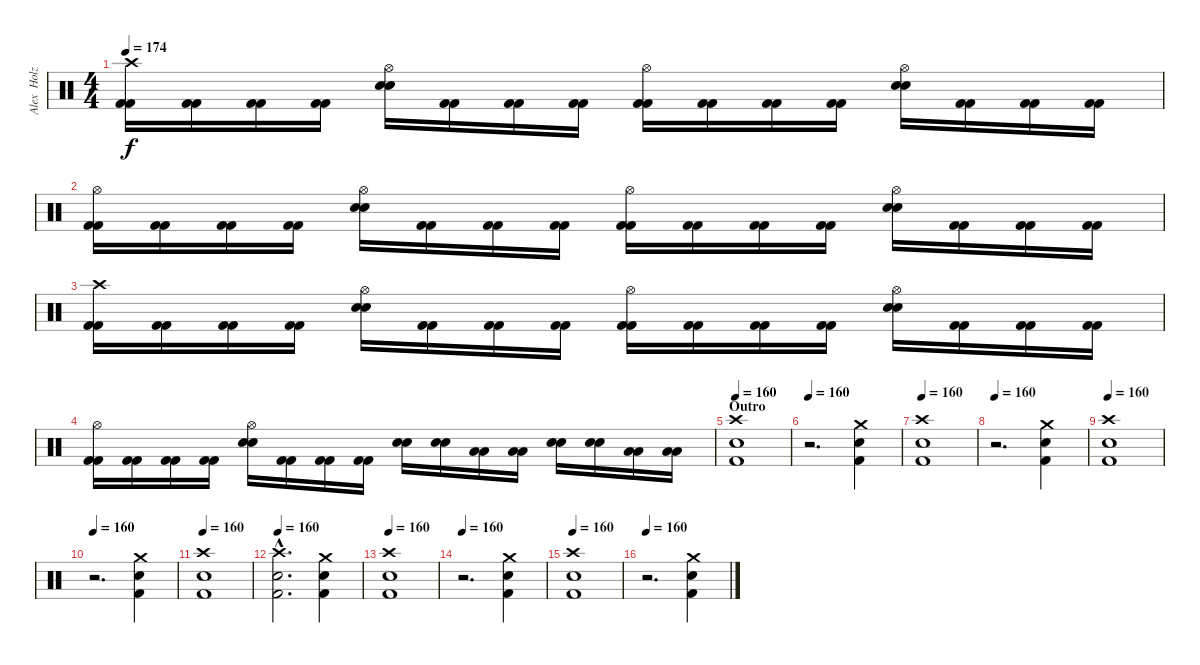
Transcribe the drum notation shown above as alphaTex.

\track ("Alex  Holzwarth (Drums)" "Alex  Holz") {instrument percussion}
\staff {score}
\articulation defaults
\ts (4 4)
\tempo 174
\clef neutral
\ks c
("Crash high (hit)" "Kick (hit) 2" "Kick (hit) 2").16{dy f} ("Kick (hit) 2" "Kick (hit) 2").16 ("Kick (hit) 2" "Kick (hit) 2").16 ("Kick (hit) 2" "Kick (hit) 2").16 ("Hi-Hat (open)" "Snare (hit) 2" "Snare (hit) 2").16 ("Kick (hit) 2" "Kick (hit) 2").16 ("Kick (hit) 2" "Kick (hit) 2").16 ("Kick (hit) 2" "Kick (hit) 2").16 ("Hi-Hat (open)" "Kick (hit) 2" "Kick (hit) 2").16 ("Kick (hit) 2" "Kick (hit) 2").16 ("Kick (hit) 2" "Kick (hit) 2").16 ("Kick (hit) 2" "Kick (hit) 2").16 ("Hi-Hat (open)" "Snare (hit) 2" "Snare (hit) 2").16 ("Kick (hit) 2" "Kick (hit) 2").16 ("Kick (hit) 2" "Kick (hit) 2").16 ("Kick (hit) 2" "Kick (hit) 2").16 |
("Hi-Hat (open)" "Kick (hit) 2" "Kick (hit) 2").16 ("Kick (hit) 2" "Kick (hit) 2").16 ("Kick (hit) 2" "Kick (hit) 2").16 ("Kick (hit) 2" "Kick (hit) 2").16 ("Hi-Hat (open)" "Snare (hit) 2" "Snare (hit) 2").16 ("Kick (hit) 2" "Kick (hit) 2").16 ("Kick (hit) 2" "Kick (hit) 2").16 ("Kick (hit) 2" "Kick (hit) 2").16 ("Hi-Hat (open)" "Kick (hit) 2" "Kick (hit) 2").16 ("Kick (hit) 2" "Kick (hit) 2").16 ("Kick (hit) 2" "Kick (hit) 2").16 ("Kick (hit) 2" "Kick (hit) 2").16 ("Hi-Hat (open)" "Snare (hit) 2" "Snare (hit) 2").16 ("Kick (hit) 2" "Kick (hit) 2").16 ("Kick (hit) 2" "Kick (hit) 2").16 ("Kick (hit) 2" "Kick (hit) 2").16 |
("Crash high (hit)" "Kick (hit) 2" "Kick (hit) 2").16 ("Kick (hit) 2" "Kick (hit) 2").16 ("Kick (hit) 2" "Kick (hit) 2").16 ("Kick (hit) 2" "Kick (hit) 2").16 ("Hi-Hat (open)" "Snare (hit) 2" "Snare (hit) 2").16 ("Kick (hit) 2" "Kick (hit) 2").16 ("Kick (hit) 2" "Kick (hit) 2").16 ("Kick (hit) 2" "Kick (hit) 2").16 ("Hi-Hat (open)" "Kick (hit) 2" "Kick (hit) 2").16 ("Kick (hit) 2" "Kick (hit) 2").16 ("Kick (hit) 2" "Kick (hit) 2").16 ("Kick (hit) 2" "Kick (hit) 2").16 ("Hi-Hat (open)" "Snare (hit) 2" "Snare (hit) 2").16 ("Kick (hit) 2" "Kick (hit) 2").16 ("Kick (hit) 2" "Kick (hit) 2").16 ("Kick (hit) 2" "Kick (hit) 2").16 |
("Hi-Hat (open)" "Kick (hit) 2" "Kick (hit) 2").16 ("Kick (hit) 2" "Kick (hit) 2").16 ("Kick (hit) 2" "Kick (hit) 2").16 ("Kick (hit) 2" "Kick (hit) 2").16 ("Hi-Hat (open)" "Snare (hit) 2" "Snare (hit) 2").16 ("Kick (hit) 2" "Kick (hit) 2").16 ("Kick (hit) 2" "Kick (hit) 2").16 ("Kick (hit) 2" "Kick (hit) 2").16 ("Snare (hit) 2" "Snare (hit) 2").16 ("Snare (hit) 2" "Snare (hit) 2").16 ("Low Tom (hit)" "Low Tom (hit)").16 ("Low Tom (hit)" "Low Tom (hit)").16 ("Snare (hit) 2" "Snare (hit) 2").16 ("Snare (hit) 2" "Snare (hit) 2").16 ("Low Tom (hit)" "Low Tom (hit)").16 ("Low Tom (hit)" "Low Tom (hit)").16 |
\section ("" "Outro")
\tempo 160
("Crash high (hit)" "Snare (hit) 2" "Kick (hit) 2").1 |
\tempo 160
r.2{d} ("Crash medium (hit)" "Snare (hit) 2" "Kick (hit) 2").4 |
\tempo 160
("Crash high (hit)" "Snare (hit) 2" "Kick (hit) 2").1 |
\tempo 160
r.2{d} ("Crash medium (hit)" "Snare (hit) 2" "Kick (hit) 2").4 |
\tempo 160
("Crash high (hit)" "Snare (hit) 2" "Kick (hit) 2").1 |
\tempo 160
r.2{d} ("Crash medium (hit)" "Snare (hit) 2" "Kick (hit) 2").4 |
\tempo 160
("Crash high (hit)" "Snare (hit) 2" "Kick (hit) 2").1 |
\tempo 160
("Crash high (hit)"{hac} "Snare (hit) 2"{hac} "Kick (hit) 2"{hac}).2{d} ("Crash medium (hit)" "Snare (hit) 2" "Kick (hit) 2").4 |
\tempo 160
("Crash high (hit)" "Snare (hit) 2" "Kick (hit) 2").1 |
\tempo 160
r.2{d} ("Crash medium (hit)" "Snare (hit) 2" "Kick (hit) 2").4 |
\tempo 160
("Crash high (hit)" "Snare (hit) 2" "Kick (hit) 2").1 |
\tempo 160
r.2{d} ("Crash medium (hit)" "Snare (hit) 2" "Kick (hit) 2").4
